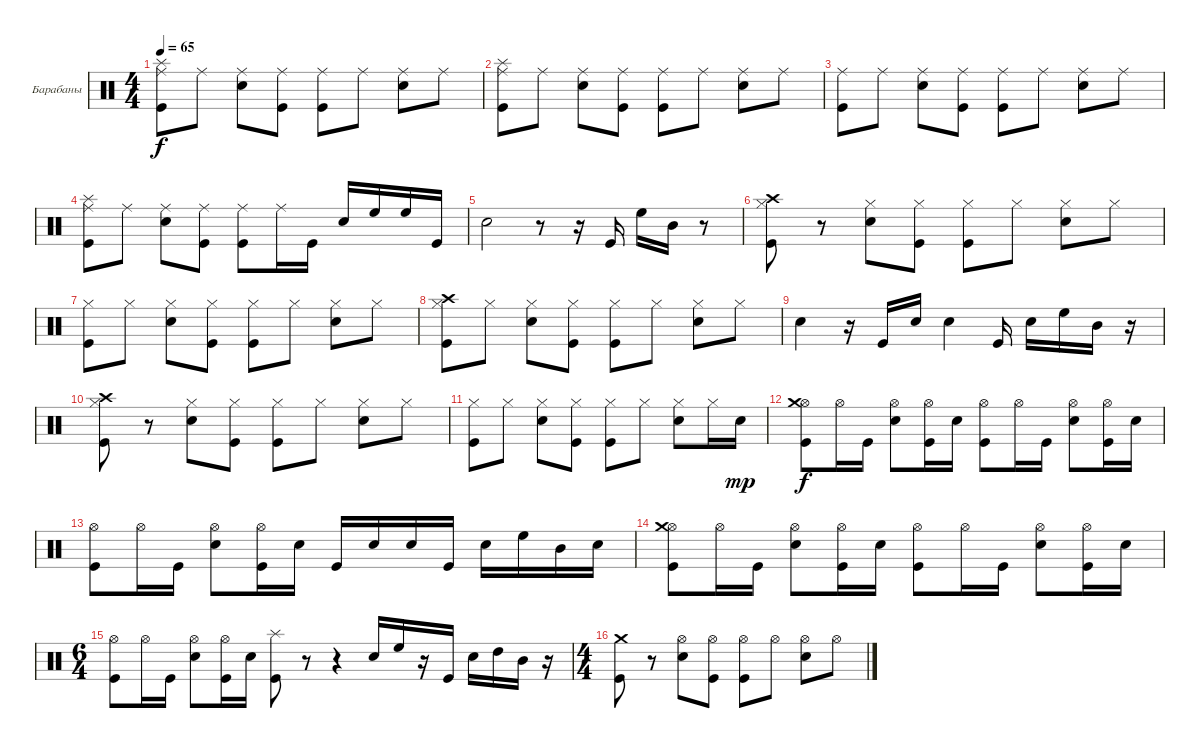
\bracketExtendMode groupsimilarinstruments
\firstSystemTrackNameOrientation horizontal
\otherSystemsTrackNameOrientation horizontal
\track ("Ударные" "Барабаны") {instrument percussion}
\staff {score}
\articulation defaults
\ts (4 4)
\tempo 65
\clef neutral
\ks c
("Ride (middle)" "Splash (hit)" "Kick (hit)").8{dy f} "Ride (middle)".8 ("Ride (middle)" "Snare (hit) 2").8 ("Ride (middle)" "Kick (hit)").8 ("Ride (middle)" "Kick (hit)").8 "Ride (middle)".8 ("Ride (middle)" "Snare (hit) 2").8 "Ride (middle)".8 |
("Ride (middle)" "Splash (hit)" "Kick (hit)").8 "Ride (middle)".8 ("Ride (middle)" "Snare (hit) 2").8 ("Ride (middle)" "Kick (hit)").8 ("Ride (middle)" "Kick (hit)").8 "Ride (middle)".8 ("Ride (middle)" "Snare (hit) 2").8 "Ride (middle)".8 |
("Ride (middle)" "Kick (hit)").8 "Ride (middle)".8 ("Ride (middle)" "Snare (hit) 2").8 ("Ride (middle)" "Kick (hit)").8 ("Ride (middle)" "Kick (hit)").8 "Ride (middle)".8 ("Ride (middle)" "Snare (hit) 2").8 "Ride (middle)".8 |
("Ride (middle)" "Splash (hit)" "Kick (hit)").8 "Ride (middle)".8 ("Ride (middle)" "Snare (hit) 2").8 ("Ride (middle)" "Kick (hit)").8 ("Ride (middle)" "Kick (hit)").8 "Ride (middle)".16 "Kick (hit)".16 "Snare (hit) 2".16 "High Floor Tom (hit)".16 "High Floor Tom (hit)".16 "Kick (hit)".16 |
"Snare (hit) 2".2 r.8 r.16 "Kick (hit)".16 "High Floor Tom (hit)".16 "Mid Tom (hit)".16 r.8 |
("Hi-Hat (closed)" "Crash high (hit)" "Kick (hit)").8 r.8 ("Hi-Hat (closed)" "Snare (hit) 2").8 ("Hi-Hat (closed)" "Kick (hit)").8 ("Hi-Hat (closed)" "Kick (hit)").8 "Hi-Hat (closed)".8 ("Hi-Hat (closed)" "Snare (hit) 2").8 "Hi-Hat (closed)".8 |
("Hi-Hat (closed)" "Kick (hit)").8 "Hi-Hat (closed)".8 ("Hi-Hat (closed)" "Snare (hit) 2").8 ("Hi-Hat (closed)" "Kick (hit)").8 ("Hi-Hat (closed)" "Kick (hit)").8 "Hi-Hat (closed)".8 ("Hi-Hat (closed)" "Snare (hit) 2").8 "Hi-Hat (closed)".8 |
("Hi-Hat (closed)" "Crash high (hit)" "Kick (hit)").8 "Hi-Hat (closed)".8 ("Hi-Hat (closed)" "Snare (hit) 2").8 ("Hi-Hat (closed)" "Kick (hit)").8 ("Hi-Hat (closed)" "Kick (hit)").8 "Hi-Hat (closed)".8 ("Hi-Hat (closed)" "Snare (hit) 2").8 "Hi-Hat (closed)".8 |
"Snare (hit) 2".4 r.16 "Kick (hit)".16 "Snare (hit) 2".16 "Snare (hit) 2".4 "Kick (hit)".16 "Snare (hit) 2".16 "High Floor Tom (hit)".16 "Mid Tom (hit)".16 r.16 |
("Hi-Hat (closed)" "Crash high (hit)" "Kick (hit)").8 r.8 ("Hi-Hat (closed)" "Snare (hit) 2").8 ("Hi-Hat (closed)" "Kick (hit)").8 ("Hi-Hat (closed)" "Kick (hit)").8 "Hi-Hat (closed)".8 ("Hi-Hat (closed)" "Snare (hit) 2").8 "Hi-Hat (closed)".8 |
("Hi-Hat (closed)" "Kick (hit)").8 "Hi-Hat (closed)".8 ("Hi-Hat (closed)" "Snare (hit) 2").8 ("Hi-Hat (closed)" "Kick (hit)").8 ("Hi-Hat (closed)" "Kick (hit)").8 "Hi-Hat (closed)".8 ("Hi-Hat (closed)" "Snare (hit) 2").8 "Hi-Hat (closed)".16 "Snare (hit) 2".16{dy mp} |
("Hi-Hat (open)" "Crash medium (hit)" "Kick (hit)").8{dy f} "Hi-Hat (open)".16 "Kick (hit)".16 ("Hi-Hat (open)" "Snare (hit) 2").8 ("Hi-Hat (open)" "Kick (hit)").16 "Snare (hit) 2".16 ("Hi-Hat (open)" "Kick (hit)").8 "Hi-Hat (open)".16 "Kick (hit)".16 ("Hi-Hat (open)" "Snare (hit) 2").8 ("Hi-Hat (open)" "Kick (hit)").16 "Snare (hit) 2".16 |
("Hi-Hat (open)" "Kick (hit)").8 "Hi-Hat (open)".16 "Kick (hit)".16 ("Hi-Hat (open)" "Snare (hit) 2").8 ("Hi-Hat (open)" "Kick (hit)").16 "Snare (hit) 2".16 "Kick (hit)".16 "Snare (hit) 2".16 "Snare (hit) 2".16 "Kick (hit)".16 "Snare (hit) 2".16 "High Floor Tom (hit)".16 "Mid Tom (hit)".16 "Snare (hit) 2".16 |
("Hi-Hat (open)" "Crash medium (hit)" "Kick (hit)").8 "Hi-Hat (open)".16 "Kick (hit)".16 ("Hi-Hat (open)" "Snare (hit) 2").8 ("Hi-Hat (open)" "Kick (hit)").16 "Snare (hit) 2".16 ("Hi-Hat (open)" "Kick (hit)").8 "Hi-Hat (open)".16 "Kick (hit)".16 ("Hi-Hat (open)" "Snare (hit) 2").8 ("Hi-Hat (open)" "Kick (hit)").16 "Snare (hit) 2".16 |
\ts (6 4)
("Hi-Hat (open)" "Kick (hit)").8 "Hi-Hat (open)".16 "Kick (hit)".16 ("Hi-Hat (open)" "Snare (hit) 2").8 ("Hi-Hat (open)" "Kick (hit)").16 "Snare (hit) 2".16 ("Splash (hit)" "Kick (hit)").8 r.8 r.4 "Snare (hit) 2".16 "High Floor Tom (hit)".16 r.16 "Kick (hit)".16 "Snare (hit) 2".16 "High Tom (hit)".16 "Mid Tom (hit)".16 r.16 |
\ts (4 4)
("Crash medium (hit)" "Kick (hit)").8 r.8 ("Hi-Hat (open)" "Snare (hit) 2").8 ("Hi-Hat (open)" "Kick (hit)").8 ("Hi-Hat (open)" "Kick (hit)").8 "Hi-Hat (open)".8 ("Hi-Hat (open)" "Snare (hit) 2").8 "Hi-Hat (open)".8
